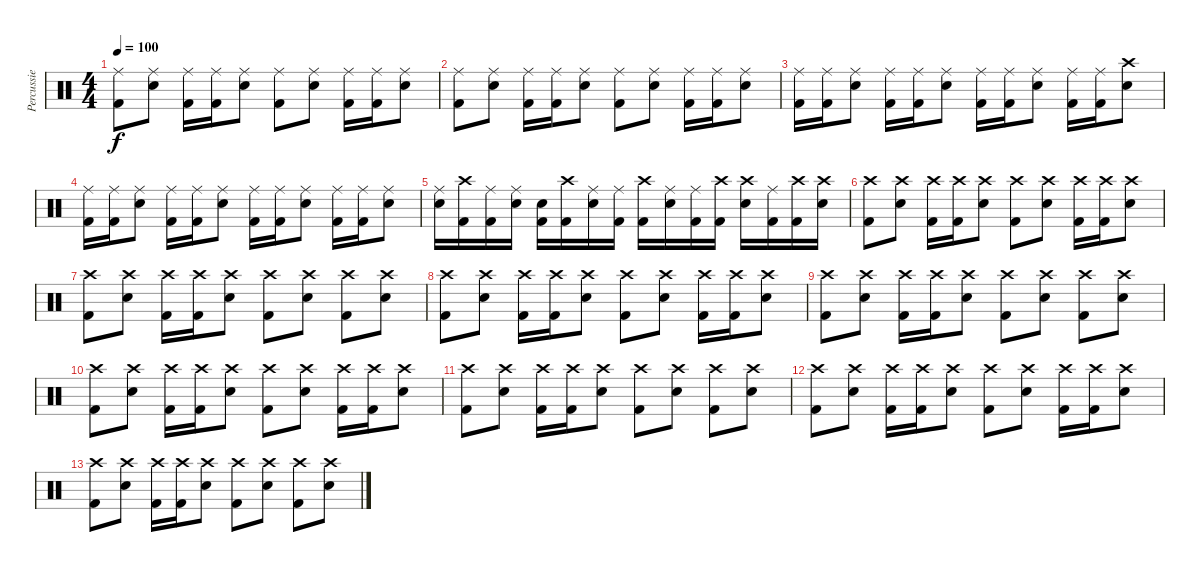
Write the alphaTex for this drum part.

\track ("Percussie" "Percussie") {instrument percussion}
\staff {score}
\articulation defaults
\ts (4 4)
\tempo 100
\clef neutral
\ks c
("Ride (middle)" "Kick (hit) 2").8{dy f} ("Ride (middle)" "Electric Snare (hit)").8 ("Ride (middle)" "Kick (hit) 2").16 ("Ride (middle)" "Kick (hit) 2").16 ("Ride (middle)" "Electric Snare (hit)").8 ("Ride (middle)" "Kick (hit) 2").8 ("Ride (middle)" "Electric Snare (hit)").8 ("Ride (middle)" "Kick (hit) 2").16 ("Ride (middle)" "Kick (hit) 2").16 ("Ride (middle)" "Electric Snare (hit)").8 |
("Ride (middle)" "Kick (hit) 2").8 ("Ride (middle)" "Electric Snare (hit)").8 ("Ride (middle)" "Kick (hit) 2").16 ("Ride (middle)" "Kick (hit) 2").16 ("Ride (middle)" "Electric Snare (hit)").8 ("Ride (middle)" "Kick (hit) 2").8 ("Ride (middle)" "Electric Snare (hit)").8 ("Ride (middle)" "Kick (hit) 2").16 ("Ride (middle)" "Kick (hit) 2").16 ("Ride (middle)" "Electric Snare (hit)").8 |
("Ride (middle)" "Kick (hit) 2").16 ("Ride (middle)" "Kick (hit) 2").16 ("Ride (middle)" "Electric Snare (hit)").8 ("Ride (middle)" "Kick (hit) 2").16 ("Ride (middle)" "Kick (hit) 2").16 ("Ride (middle)" "Electric Snare (hit)").8 ("Ride (middle)" "Kick (hit) 2").16 ("Ride (middle)" "Kick (hit) 2").16 ("Ride (middle)" "Electric Snare (hit)").8 ("Ride (middle)" "Kick (hit) 2").16 ("Ride (middle)" "Kick (hit) 2").16 ("Crash high (hit)" "Electric Snare (hit)").8 |
("Ride (middle)" "Kick (hit) 2").16 ("Ride (middle)" "Kick (hit) 2").16 ("Ride (middle)" "Electric Snare (hit)").8 ("Ride (middle)" "Kick (hit) 2").16 ("Ride (middle)" "Kick (hit) 2").16 ("Ride (middle)" "Electric Snare (hit)").8 ("Ride (middle)" "Kick (hit) 2").16 ("Ride (middle)" "Kick (hit) 2").16 ("Ride (middle)" "Electric Snare (hit)").8 ("Ride (middle)" "Kick (hit) 2").16 ("Ride (middle)" "Kick (hit) 2").16 ("Ride (middle)" "Electric Snare (hit)").8 |
("Ride (middle)" "Electric Snare (hit)").16 ("Crash high (hit)" "Kick (hit) 2").16 ("Ride (middle)" "Kick (hit) 2").16 ("Ride (middle)" "Electric Snare (hit)").16 ("Snare (hit)" "Kick (hit) 2").16 ("Crash high (hit)" "Kick (hit) 2").16 ("Ride (middle)" "Electric Snare (hit)").16 ("Ride (middle)" "Kick (hit) 2").16 ("Crash high (hit)" "Kick (hit) 2").16 ("Ride (middle)" "Electric Snare (hit)").16 ("Ride (middle)" "Kick (hit) 2").16 ("Crash high (hit)" "Kick (hit) 2").16 ("Crash high (hit)" "Electric Snare (hit)").16 ("Ride (middle)" "Kick (hit) 2").16 ("Crash high (hit)" "Kick (hit) 2").16 ("Crash high (hit)" "Electric Snare (hit)").16 |
("Crash high (hit)" "Kick (hit) 2").8 ("Crash high (hit)" "Electric Snare (hit)").8 ("Crash high (hit)" "Kick (hit) 2").16 ("Crash high (hit)" "Kick (hit) 2").16 ("Crash high (hit)" "Electric Snare (hit)").8 ("Crash high (hit)" "Kick (hit) 2").8 ("Crash high (hit)" "Electric Snare (hit)").8 ("Crash high (hit)" "Kick (hit) 2").16 ("Crash high (hit)" "Kick (hit) 2").16 ("Crash high (hit)" "Electric Snare (hit)").8 |
("Crash high (hit)" "Kick (hit) 2").8 ("Crash high (hit)" "Electric Snare (hit)").8 ("Crash high (hit)" "Kick (hit) 2").16 ("Crash high (hit)" "Kick (hit) 2").16 ("Crash high (hit)" "Electric Snare (hit)").8 ("Crash high (hit)" "Kick (hit) 2").8 ("Crash high (hit)" "Electric Snare (hit)").8 ("Crash high (hit)" "Kick (hit) 2").8 ("Crash high (hit)" "Electric Snare (hit)").8 |
("Crash high (hit)" "Kick (hit) 2").8 ("Crash high (hit)" "Electric Snare (hit)").8 ("Crash high (hit)" "Kick (hit) 2").16 ("Crash high (hit)" "Kick (hit) 2").16 ("Crash high (hit)" "Electric Snare (hit)").8 ("Crash high (hit)" "Kick (hit) 2").8 ("Crash high (hit)" "Electric Snare (hit)").8 ("Crash high (hit)" "Kick (hit) 2").16 ("Crash high (hit)" "Kick (hit) 2").16 ("Crash high (hit)" "Electric Snare (hit)").8 |
("Crash high (hit)" "Kick (hit) 2").8 ("Crash high (hit)" "Electric Snare (hit)").8 ("Crash high (hit)" "Kick (hit) 2").16 ("Crash high (hit)" "Kick (hit) 2").16 ("Crash high (hit)" "Electric Snare (hit)").8 ("Crash high (hit)" "Kick (hit) 2").8 ("Crash high (hit)" "Electric Snare (hit)").8 ("Crash high (hit)" "Kick (hit) 2").8 ("Crash high (hit)" "Electric Snare (hit)").8 |
("Crash high (hit)" "Kick (hit) 2").8 ("Crash high (hit)" "Electric Snare (hit)").8 ("Crash high (hit)" "Kick (hit) 2").16 ("Crash high (hit)" "Kick (hit) 2").16 ("Crash high (hit)" "Electric Snare (hit)").8 ("Crash high (hit)" "Kick (hit) 2").8 ("Crash high (hit)" "Electric Snare (hit)").8 ("Crash high (hit)" "Kick (hit) 2").16 ("Crash high (hit)" "Kick (hit) 2").16 ("Crash high (hit)" "Electric Snare (hit)").8 |
("Crash high (hit)" "Kick (hit) 2").8 ("Crash high (hit)" "Electric Snare (hit)").8 ("Crash high (hit)" "Kick (hit) 2").16 ("Crash high (hit)" "Kick (hit) 2").16 ("Crash high (hit)" "Electric Snare (hit)").8 ("Crash high (hit)" "Kick (hit) 2").8 ("Crash high (hit)" "Electric Snare (hit)").8 ("Crash high (hit)" "Kick (hit) 2").8 ("Crash high (hit)" "Electric Snare (hit)").8 |
("Crash high (hit)" "Kick (hit) 2").8 ("Crash high (hit)" "Electric Snare (hit)").8 ("Crash high (hit)" "Kick (hit) 2").16 ("Crash high (hit)" "Kick (hit) 2").16 ("Crash high (hit)" "Electric Snare (hit)").8 ("Crash high (hit)" "Kick (hit) 2").8 ("Crash high (hit)" "Electric Snare (hit)").8 ("Crash high (hit)" "Kick (hit) 2").16 ("Crash high (hit)" "Kick (hit) 2").16 ("Crash high (hit)" "Electric Snare (hit)").8 |
("Crash high (hit)" "Kick (hit) 2").8 ("Crash high (hit)" "Electric Snare (hit)").8 ("Crash high (hit)" "Kick (hit) 2").16 ("Crash high (hit)" "Kick (hit) 2").16 ("Crash high (hit)" "Electric Snare (hit)").8 ("Crash high (hit)" "Kick (hit) 2").8 ("Crash high (hit)" "Electric Snare (hit)").8 ("Crash high (hit)" "Kick (hit) 2").8 ("Crash high (hit)" "Electric Snare (hit)").8
